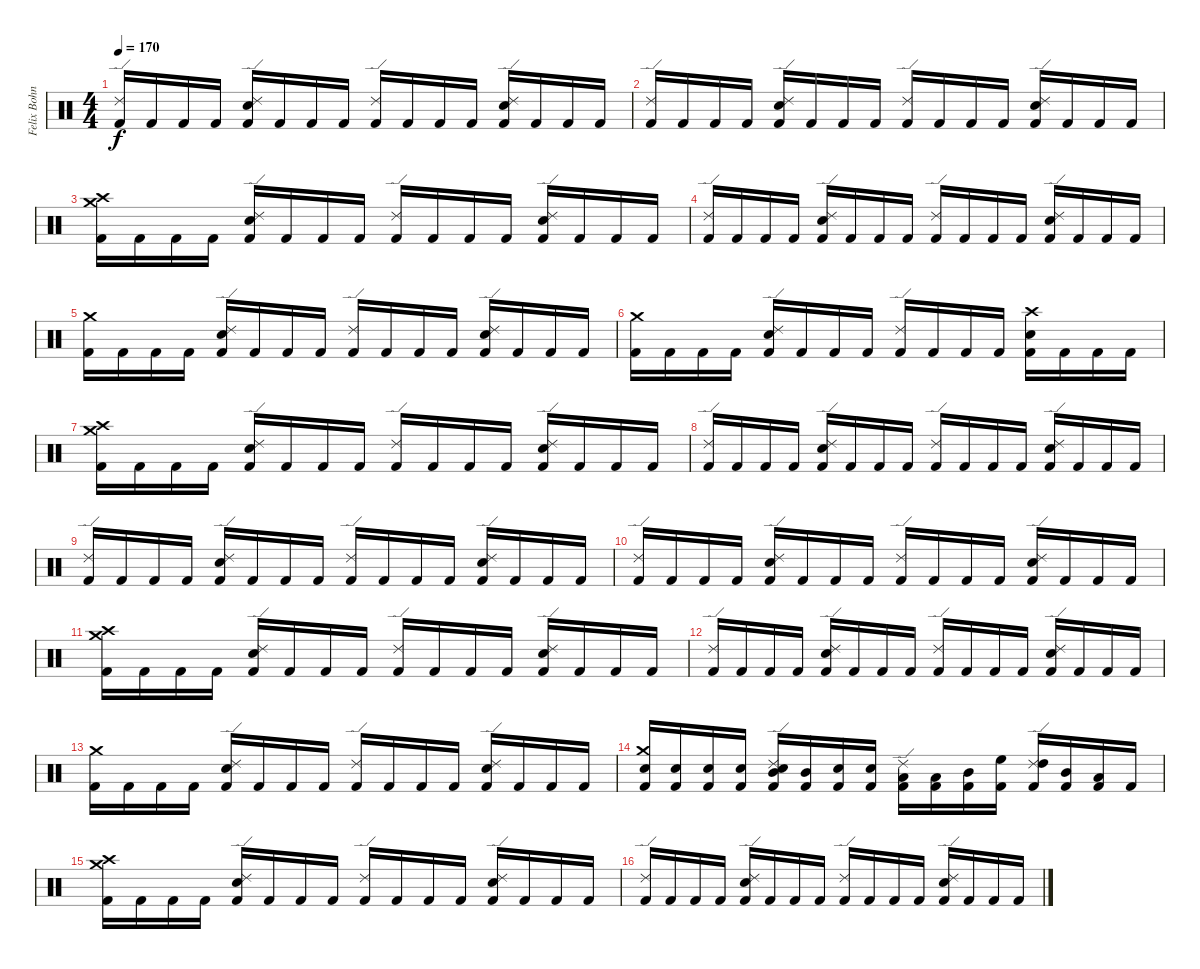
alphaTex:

\track ("Felix Bohnke" "Felix Bohn") {instrument percussion}
\staff {score}
\articulation defaults
\ts (4 4)
\tempo 170
\clef neutral
\ks c
("Ride (edge) 2" "Kick (hit) 2").16{dy f} "Kick (hit) 2".16 "Kick (hit) 2".16 "Kick (hit) 2".16 ("Ride (edge) 2" "Snare (hit) 2" "Kick (hit) 2").16 "Kick (hit) 2".16 "Kick (hit) 2".16 "Kick (hit) 2".16 ("Ride (edge) 2" "Kick (hit) 2").16 "Kick (hit) 2".16 "Kick (hit) 2".16 "Kick (hit) 2".16 ("Ride (edge) 2" "Snare (hit) 2" "Kick (hit) 2").16 "Kick (hit) 2".16 "Kick (hit) 2".16 "Kick (hit) 2".16 |
("Ride (edge) 2" "Kick (hit) 2").16 "Kick (hit) 2".16 "Kick (hit) 2".16 "Kick (hit) 2".16 ("Ride (edge) 2" "Snare (hit) 2" "Kick (hit) 2").16 "Kick (hit) 2".16 "Kick (hit) 2".16 "Kick (hit) 2".16 ("Ride (edge) 2" "Kick (hit) 2").16 "Kick (hit) 2".16 "Kick (hit) 2".16 "Kick (hit) 2".16 ("Ride (edge) 2" "Snare (hit) 2" "Kick (hit) 2").16 "Kick (hit) 2".16 "Kick (hit) 2".16 "Kick (hit) 2".16 |
("Crash high (hit)" "Crash medium (hit)" "Kick (hit) 2").16 "Kick (hit) 2".16 "Kick (hit) 2".16 "Kick (hit) 2".16 ("Ride (edge) 2" "Snare (hit) 2" "Kick (hit) 2").16 "Kick (hit) 2".16 "Kick (hit) 2".16 "Kick (hit) 2".16 ("Ride (edge) 2" "Kick (hit) 2").16 "Kick (hit) 2".16 "Kick (hit) 2".16 "Kick (hit) 2".16 ("Ride (edge) 2" "Snare (hit) 2" "Kick (hit) 2").16 "Kick (hit) 2".16 "Kick (hit) 2".16 "Kick (hit) 2".16 |
("Ride (edge) 2" "Kick (hit) 2").16 "Kick (hit) 2".16 "Kick (hit) 2".16 "Kick (hit) 2".16 ("Ride (edge) 2" "Snare (hit) 2" "Kick (hit) 2").16 "Kick (hit) 2".16 "Kick (hit) 2".16 "Kick (hit) 2".16 ("Ride (edge) 2" "Kick (hit) 2").16 "Kick (hit) 2".16 "Kick (hit) 2".16 "Kick (hit) 2".16 ("Ride (edge) 2" "Snare (hit) 2" "Kick (hit) 2").16 "Kick (hit) 2".16 "Kick (hit) 2".16 "Kick (hit) 2".16 |
("Crash medium (hit)" "Kick (hit) 2").16 "Kick (hit) 2".16 "Kick (hit) 2".16 "Kick (hit) 2".16 ("Ride (edge) 2" "Snare (hit) 2" "Kick (hit) 2").16 "Kick (hit) 2".16 "Kick (hit) 2".16 "Kick (hit) 2".16 ("Ride (edge) 2" "Kick (hit) 2").16 "Kick (hit) 2".16 "Kick (hit) 2".16 "Kick (hit) 2".16 ("Ride (edge) 2" "Snare (hit) 2" "Kick (hit) 2").16 "Kick (hit) 2".16 "Kick (hit) 2".16 "Kick (hit) 2".16 |
("Crash medium (hit)" "Kick (hit) 2").16 "Kick (hit) 2".16 "Kick (hit) 2".16 "Kick (hit) 2".16 ("Ride (edge) 2" "Snare (hit) 2" "Kick (hit) 2").16 "Kick (hit) 2".16 "Kick (hit) 2".16 "Kick (hit) 2".16 ("Ride (edge) 2" "Kick (hit) 2").16 "Kick (hit) 2".16 "Kick (hit) 2".16 "Kick (hit) 2".16 ("Crash high (hit)" "Snare (hit) 2" "Kick (hit) 2").16 "Kick (hit) 2".16 "Kick (hit) 2".16 "Kick (hit) 2".16 |
("Crash high (hit)" "Crash medium (hit)" "Kick (hit) 2").16 "Kick (hit) 2".16 "Kick (hit) 2".16 "Kick (hit) 2".16 ("Ride (edge) 2" "Snare (hit) 2" "Kick (hit) 2").16 "Kick (hit) 2".16 "Kick (hit) 2".16 "Kick (hit) 2".16 ("Ride (edge) 2" "Kick (hit) 2").16 "Kick (hit) 2".16 "Kick (hit) 2".16 "Kick (hit) 2".16 ("Ride (edge) 2" "Snare (hit) 2" "Kick (hit) 2").16 "Kick (hit) 2".16 "Kick (hit) 2".16 "Kick (hit) 2".16 |
("Ride (edge) 2" "Kick (hit) 2").16 "Kick (hit) 2".16 "Kick (hit) 2".16 "Kick (hit) 2".16 ("Ride (edge) 2" "Snare (hit) 2" "Kick (hit) 2").16 "Kick (hit) 2".16 "Kick (hit) 2".16 "Kick (hit) 2".16 ("Ride (edge) 2" "Kick (hit) 2").16 "Kick (hit) 2".16 "Kick (hit) 2".16 "Kick (hit) 2".16 ("Ride (edge) 2" "Snare (hit) 2" "Kick (hit) 2").16 "Kick (hit) 2".16 "Kick (hit) 2".16 "Kick (hit) 2".16 |
("Ride (edge) 2" "Kick (hit) 2").16 "Kick (hit) 2".16 "Kick (hit) 2".16 "Kick (hit) 2".16 ("Ride (edge) 2" "Snare (hit) 2" "Kick (hit) 2").16 "Kick (hit) 2".16 "Kick (hit) 2".16 "Kick (hit) 2".16 ("Ride (edge) 2" "Kick (hit) 2").16 "Kick (hit) 2".16 "Kick (hit) 2".16 "Kick (hit) 2".16 ("Ride (edge) 2" "Snare (hit) 2" "Kick (hit) 2").16 "Kick (hit) 2".16 "Kick (hit) 2".16 "Kick (hit) 2".16 |
("Ride (edge) 2" "Kick (hit) 2").16 "Kick (hit) 2".16 "Kick (hit) 2".16 "Kick (hit) 2".16 ("Ride (edge) 2" "Snare (hit) 2" "Kick (hit) 2").16 "Kick (hit) 2".16 "Kick (hit) 2".16 "Kick (hit) 2".16 ("Ride (edge) 2" "Kick (hit) 2").16 "Kick (hit) 2".16 "Kick (hit) 2".16 "Kick (hit) 2".16 ("Ride (edge) 2" "Snare (hit) 2" "Kick (hit) 2").16 "Kick (hit) 2".16 "Kick (hit) 2".16 "Kick (hit) 2".16 |
("Crash high (hit)" "Crash medium (hit)" "Kick (hit) 2").16 "Kick (hit) 2".16 "Kick (hit) 2".16 "Kick (hit) 2".16 ("Ride (edge) 2" "Snare (hit) 2" "Kick (hit) 2").16 "Kick (hit) 2".16 "Kick (hit) 2".16 "Kick (hit) 2".16 ("Ride (edge) 2" "Kick (hit) 2").16 "Kick (hit) 2".16 "Kick (hit) 2".16 "Kick (hit) 2".16 ("Ride (edge) 2" "Snare (hit) 2" "Kick (hit) 2").16 "Kick (hit) 2".16 "Kick (hit) 2".16 "Kick (hit) 2".16 |
("Ride (edge) 2" "Kick (hit) 2").16 "Kick (hit) 2".16 "Kick (hit) 2".16 "Kick (hit) 2".16 ("Ride (edge) 2" "Snare (hit) 2" "Kick (hit) 2").16 "Kick (hit) 2".16 "Kick (hit) 2".16 "Kick (hit) 2".16 ("Ride (edge) 2" "Kick (hit) 2").16 "Kick (hit) 2".16 "Kick (hit) 2".16 "Kick (hit) 2".16 ("Ride (edge) 2" "Snare (hit) 2" "Kick (hit) 2").16 "Kick (hit) 2".16 "Kick (hit) 2".16 "Kick (hit) 2".16 |
("Crash medium (hit)" "Kick (hit) 2").16 "Kick (hit) 2".16 "Kick (hit) 2".16 "Kick (hit) 2".16 ("Ride (edge) 2" "Snare (hit) 2" "Kick (hit) 2").16 "Kick (hit) 2".16 "Kick (hit) 2".16 "Kick (hit) 2".16 ("Ride (edge) 2" "Kick (hit) 2").16 "Kick (hit) 2".16 "Kick (hit) 2".16 "Kick (hit) 2".16 ("Ride (edge) 2" "Snare (hit) 2" "Kick (hit) 2").16 "Kick (hit) 2".16 "Kick (hit) 2".16 "Kick (hit) 2".16 |
("Crash medium (hit)" "Electric Snare (hit)" "Kick (hit) 2").16 ("Electric Snare (hit)" "Kick (hit) 2").16 ("Electric Snare (hit)" "Kick (hit) 2").16 ("Electric Snare (hit)" "Kick (hit) 2").16 ("Ride (edge) 2" "Snare (hit) 2" "Mid Tom (hit)" "Kick (hit) 2").16 ("Mid Tom (hit)" "Kick (hit) 2").16 ("Electric Snare (hit)" "Kick (hit) 2").16 ("Electric Snare (hit)" "Kick (hit) 2").16 ("Ride (edge) 2" "Low Tom (hit)" "Kick (hit) 2").16 ("Low Tom (hit)" "Kick (hit) 2").16 ("Mid Tom (hit)" "Kick (hit) 2").16 ("High Floor Tom (hit)" "Kick (hit) 2").16 ("Ride (edge) 2" "High Tom (hit)" "Kick (hit) 2").16 ("Mid Tom (hit)" "Kick (hit) 2").16 ("Low Tom (hit)" "Kick (hit) 2").16 "Kick (hit) 2".16 |
("Crash high (hit)" "Crash medium (hit)" "Kick (hit) 2").16 "Kick (hit) 2".16 "Kick (hit) 2".16 "Kick (hit) 2".16 ("Ride (edge) 2" "Snare (hit) 2" "Kick (hit) 2").16 "Kick (hit) 2".16 "Kick (hit) 2".16 "Kick (hit) 2".16 ("Ride (edge) 2" "Kick (hit) 2").16 "Kick (hit) 2".16 "Kick (hit) 2".16 "Kick (hit) 2".16 ("Ride (edge) 2" "Snare (hit) 2" "Kick (hit) 2").16 "Kick (hit) 2".16 "Kick (hit) 2".16 "Kick (hit) 2".16 |
("Ride (edge) 2" "Kick (hit) 2").16 "Kick (hit) 2".16 "Kick (hit) 2".16 "Kick (hit) 2".16 ("Ride (edge) 2" "Snare (hit) 2" "Kick (hit) 2").16 "Kick (hit) 2".16 "Kick (hit) 2".16 "Kick (hit) 2".16 ("Ride (edge) 2" "Kick (hit) 2").16 "Kick (hit) 2".16 "Kick (hit) 2".16 "Kick (hit) 2".16 ("Ride (edge) 2" "Snare (hit) 2" "Kick (hit) 2").16 "Kick (hit) 2".16 "Kick (hit) 2".16 "Kick (hit) 2".16
